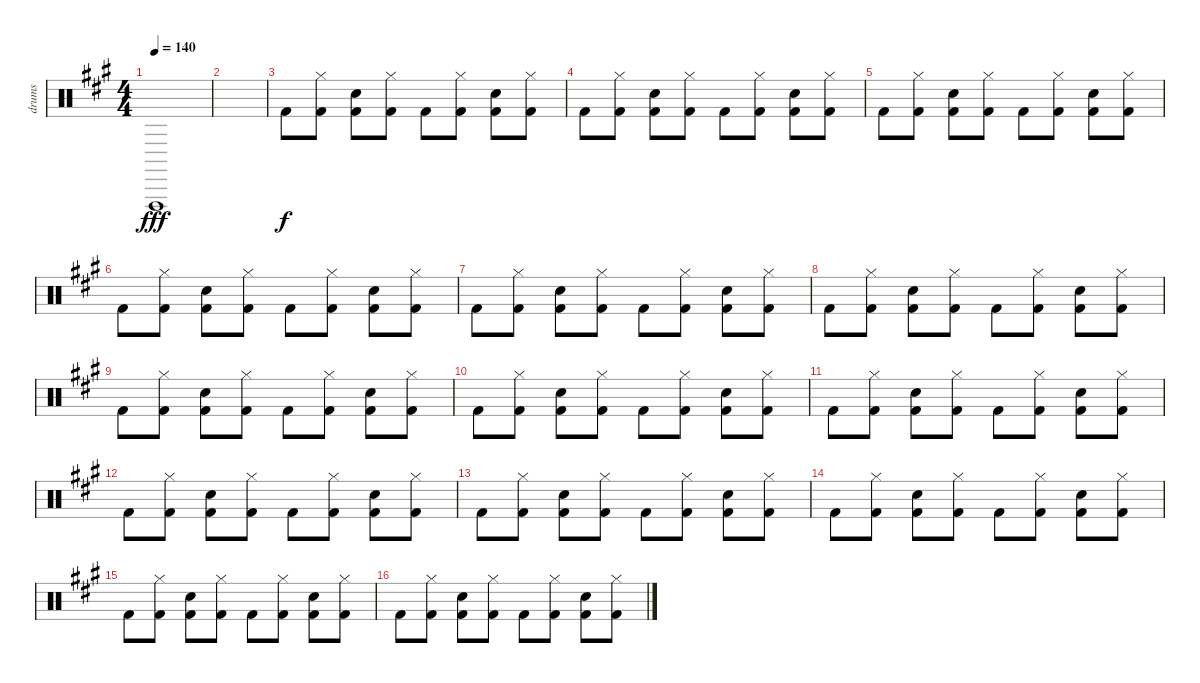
\track ("drums" "drums") {instrument percussion}
\staff {score}
\articulation defaults
\ts (4 4)
\tempo 140
\clef neutral
\ks f#minor "Vibraslap (hit)".1{dy fff}
|
|
"Kick (hit) 2".8{dy f} ("Hi-Hat (closed)" "Kick (hit) 2").8 ("Electric Snare (hit)" "Kick (hit) 2").8 ("Hi-Hat (closed)" "Kick (hit) 2").8 "Kick (hit) 2".8 ("Hi-Hat (closed)" "Kick (hit) 2").8 ("Electric Snare (hit)" "Kick (hit) 2").8 ("Hi-Hat (closed)" "Kick (hit) 2").8 |
"Kick (hit) 2".8 ("Hi-Hat (closed)" "Kick (hit) 2").8 ("Electric Snare (hit)" "Kick (hit) 2").8 ("Hi-Hat (closed)" "Kick (hit) 2").8 "Kick (hit) 2".8 ("Hi-Hat (closed)" "Kick (hit) 2").8 ("Electric Snare (hit)" "Kick (hit) 2").8 ("Hi-Hat (closed)" "Kick (hit) 2").8 |
"Kick (hit) 2".8 ("Hi-Hat (closed)" "Kick (hit) 2").8 ("Electric Snare (hit)" "Kick (hit) 2").8 ("Hi-Hat (closed)" "Kick (hit) 2").8 "Kick (hit) 2".8 ("Hi-Hat (closed)" "Kick (hit) 2").8 ("Electric Snare (hit)" "Kick (hit) 2").8 ("Hi-Hat (closed)" "Kick (hit) 2").8 |
"Kick (hit) 2".8 ("Hi-Hat (closed)" "Kick (hit) 2").8 ("Electric Snare (hit)" "Kick (hit) 2").8 ("Hi-Hat (closed)" "Kick (hit) 2").8 "Kick (hit) 2".8 ("Hi-Hat (closed)" "Kick (hit) 2").8 ("Electric Snare (hit)" "Kick (hit) 2").8 ("Hi-Hat (closed)" "Kick (hit) 2").8 |
"Kick (hit) 2".8 ("Hi-Hat (closed)" "Kick (hit) 2").8 ("Electric Snare (hit)" "Kick (hit) 2").8 ("Hi-Hat (closed)" "Kick (hit) 2").8 "Kick (hit) 2".8 ("Hi-Hat (closed)" "Kick (hit) 2").8 ("Electric Snare (hit)" "Kick (hit) 2").8 ("Hi-Hat (closed)" "Kick (hit) 2").8 |
"Kick (hit) 2".8 ("Hi-Hat (closed)" "Kick (hit) 2").8 ("Electric Snare (hit)" "Kick (hit) 2").8 ("Hi-Hat (closed)" "Kick (hit) 2").8 "Kick (hit) 2".8 ("Hi-Hat (closed)" "Kick (hit) 2").8 ("Electric Snare (hit)" "Kick (hit) 2").8 ("Hi-Hat (closed)" "Kick (hit) 2").8 |
"Kick (hit) 2".8 ("Hi-Hat (closed)" "Kick (hit) 2").8 ("Electric Snare (hit)" "Kick (hit) 2").8 ("Hi-Hat (closed)" "Kick (hit) 2").8 "Kick (hit) 2".8 ("Hi-Hat (closed)" "Kick (hit) 2").8 ("Electric Snare (hit)" "Kick (hit) 2").8 ("Hi-Hat (closed)" "Kick (hit) 2").8 |
"Kick (hit) 2".8 ("Hi-Hat (closed)" "Kick (hit) 2").8 ("Electric Snare (hit)" "Kick (hit) 2").8 ("Hi-Hat (closed)" "Kick (hit) 2").8 "Kick (hit) 2".8 ("Hi-Hat (closed)" "Kick (hit) 2").8 ("Electric Snare (hit)" "Kick (hit) 2").8 ("Hi-Hat (closed)" "Kick (hit) 2").8 |
"Kick (hit) 2".8 ("Hi-Hat (closed)" "Kick (hit) 2").8 ("Electric Snare (hit)" "Kick (hit) 2").8 ("Hi-Hat (closed)" "Kick (hit) 2").8 "Kick (hit) 2".8 ("Hi-Hat (closed)" "Kick (hit) 2").8 ("Electric Snare (hit)" "Kick (hit) 2").8 ("Hi-Hat (closed)" "Kick (hit) 2").8 |
"Kick (hit) 2".8 ("Hi-Hat (closed)" "Kick (hit) 2").8 ("Electric Snare (hit)" "Kick (hit) 2").8 ("Hi-Hat (closed)" "Kick (hit) 2").8 "Kick (hit) 2".8 ("Hi-Hat (closed)" "Kick (hit) 2").8 ("Electric Snare (hit)" "Kick (hit) 2").8 ("Hi-Hat (closed)" "Kick (hit) 2").8 |
"Kick (hit) 2".8 ("Hi-Hat (closed)" "Kick (hit) 2").8 ("Electric Snare (hit)" "Kick (hit) 2").8 ("Hi-Hat (closed)" "Kick (hit) 2").8 "Kick (hit) 2".8 ("Hi-Hat (closed)" "Kick (hit) 2").8 ("Electric Snare (hit)" "Kick (hit) 2").8 ("Hi-Hat (closed)" "Kick (hit) 2").8 |
"Kick (hit) 2".8 ("Hi-Hat (closed)" "Kick (hit) 2").8 ("Electric Snare (hit)" "Kick (hit) 2").8 ("Hi-Hat (closed)" "Kick (hit) 2").8 "Kick (hit) 2".8 ("Hi-Hat (closed)" "Kick (hit) 2").8 ("Electric Snare (hit)" "Kick (hit) 2").8 ("Hi-Hat (closed)" "Kick (hit) 2").8 |
"Kick (hit) 2".8 ("Hi-Hat (closed)" "Kick (hit) 2").8 ("Electric Snare (hit)" "Kick (hit) 2").8 ("Hi-Hat (closed)" "Kick (hit) 2").8 "Kick (hit) 2".8 ("Hi-Hat (closed)" "Kick (hit) 2").8 ("Electric Snare (hit)" "Kick (hit) 2").8 ("Hi-Hat (closed)" "Kick (hit) 2").8 |
"Kick (hit) 2".8 ("Hi-Hat (closed)" "Kick (hit) 2").8 ("Electric Snare (hit)" "Kick (hit) 2").8 ("Hi-Hat (closed)" "Kick (hit) 2").8 "Kick (hit) 2".8 ("Hi-Hat (closed)" "Kick (hit) 2").8 ("Electric Snare (hit)" "Kick (hit) 2").8 ("Hi-Hat (closed)" "Kick (hit) 2").8
